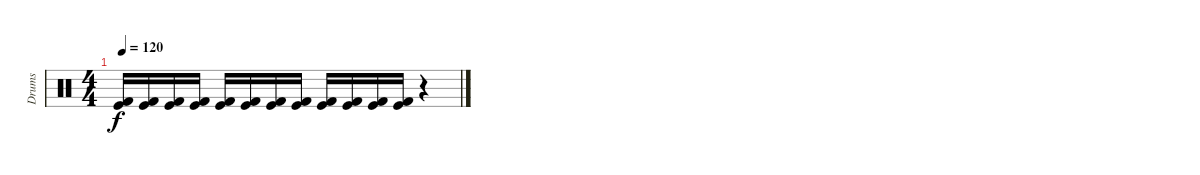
\track ("Drums" "Drums") {instrument percussion}
\staff {score}
\articulation defaults
\ts (4 4)
\tempo 120
\clef neutral
\ks c
("Kick (hit) 2" "Kick (hit)").16{dy f} ("Kick (hit) 2" "Kick (hit)").16 ("Kick (hit) 2" "Kick (hit)").16 ("Kick (hit) 2" "Kick (hit)").16 ("Kick (hit) 2" "Kick (hit)").16 ("Kick (hit) 2" "Kick (hit)").16 ("Kick (hit) 2" "Kick (hit)").16 ("Kick (hit) 2" "Kick (hit)").16 ("Kick (hit) 2" "Kick (hit)").16 ("Kick (hit) 2" "Kick (hit)").16 ("Kick (hit) 2" "Kick (hit)").16 ("Kick (hit) 2" "Kick (hit)").16 r.4
